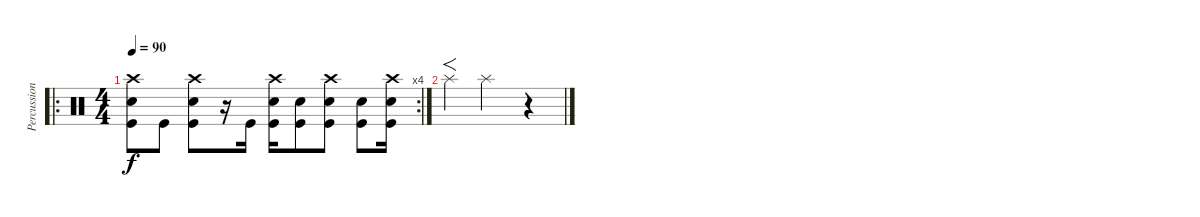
\track ("Percussion" "Percussion") {instrument percussion}
\staff {score}
\articulation defaults
\ro
\rc 4
\ts (4 4)
\tempo 90
\clef neutral
\ks c
("Crash high (hit)" "Snare (hit) 2" "Kick (hit)").8{dy f} "Kick (hit)".8 ("Crash high (hit)" "Snare (hit) 2" "Kick (hit)").8 r.16 "Kick (hit)".16 ("Crash high (hit)" "Snare (hit) 2" "Kick (hit)").16 ("Snare (hit) 2" "Kick (hit)").8 ("Crash high (hit)" "Snare (hit) 2" "Kick (hit)").8 ("Snare (hit) 2" "Kick (hit)").8 ("Crash high (hit)" "Snare (hit) 2" "Kick (hit)").16 |
"Splash (hit)".4{f} "Splash (hit)".2 r.4
